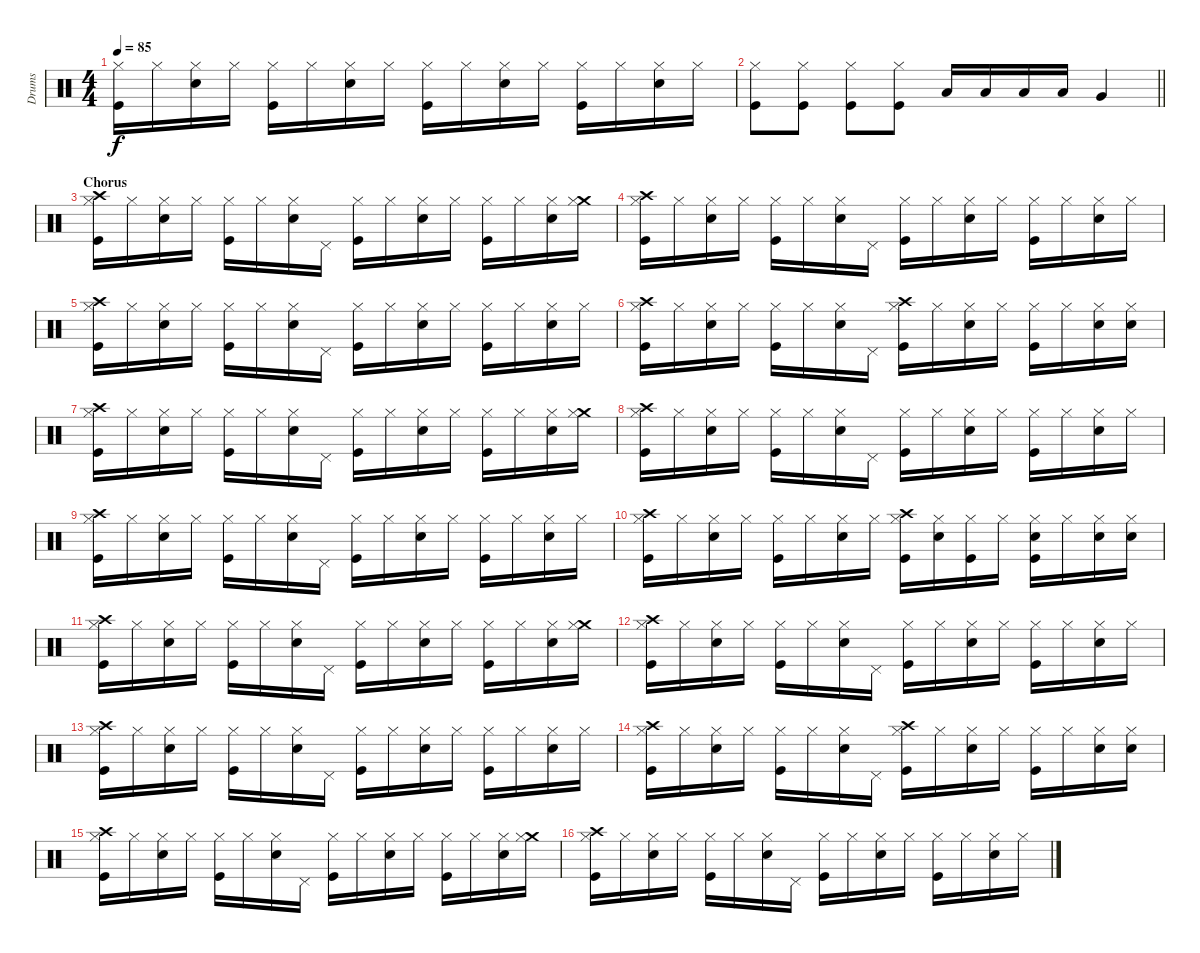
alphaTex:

\track ("Drums" "Drums") {instrument percussion}
\staff {score}
\articulation defaults
\ts (4 4)
\tempo 85
\clef neutral
\ks c
("Hi-Hat (closed)" "Kick (hit)").16{dy f} "Hi-Hat (closed)".16 ("Hi-Hat (closed)" "Electric Snare (hit)").16 "Hi-Hat (closed)".16 ("Hi-Hat (closed)" "Kick (hit)").16 "Hi-Hat (closed)".16 ("Hi-Hat (closed)" "Electric Snare (hit)").16 "Hi-Hat (closed)".16 ("Hi-Hat (closed)" "Kick (hit)").16 "Hi-Hat (closed)".16 ("Hi-Hat (closed)" "Electric Snare (hit)").16 "Hi-Hat (closed)".16 ("Hi-Hat (closed)" "Kick (hit)").16 "Hi-Hat (closed)".16 ("Hi-Hat (closed)" "Electric Snare (hit)").16 "Hi-Hat (closed)".16 |
\barLineRight lightlight
("Hi-Hat (closed)" "Kick (hit)").8 ("Hi-Hat (closed)" "Kick (hit)").8 ("Hi-Hat (closed)" "Kick (hit)").8 ("Hi-Hat (closed)" "Kick (hit)").8 "Low Floor Tom (hit)".16 "Low Floor Tom (hit)".16 "Low Floor Tom (hit)".16 "Low Floor Tom (hit)".16 "Very Low Tom (hit)".4 |
\section ("" "Chorus")
("Crash high (hit)" "Hi-Hat (closed)" "Kick (hit)").16 "Hi-Hat (closed)".16 ("Hi-Hat (closed)" "Electric Snare (hit)").16 "Hi-Hat (closed)".16 ("Hi-Hat (closed)" "Kick (hit)").16 "Hi-Hat (closed)".16 ("Hi-Hat (closed)" "Electric Snare (hit)").16 "Pedal Hi-Hat (hit)".16 ("Hi-Hat (closed)" "Kick (hit)").16 "Hi-Hat (closed)".16 ("Hi-Hat (closed)" "Electric Snare (hit)").16 "Hi-Hat (closed)".16 ("Hi-Hat (closed)" "Kick (hit)").16 "Hi-Hat (closed)".16 ("Hi-Hat (closed)" "Electric Snare (hit)").16 ("Crash medium (hit)" "Hi-Hat (closed)").16 |
("Crash high (hit)" "Hi-Hat (closed)" "Kick (hit)").16 "Hi-Hat (closed)".16 ("Hi-Hat (closed)" "Electric Snare (hit)").16 "Hi-Hat (closed)".16 ("Hi-Hat (closed)" "Kick (hit)").16 "Hi-Hat (closed)".16 ("Hi-Hat (closed)" "Electric Snare (hit)").16 "Pedal Hi-Hat (hit)".16 ("Hi-Hat (closed)" "Kick (hit)").16 "Hi-Hat (closed)".16 ("Hi-Hat (closed)" "Electric Snare (hit)").16 "Hi-Hat (closed)".16 ("Hi-Hat (closed)" "Kick (hit)").16 "Hi-Hat (closed)".16 ("Hi-Hat (closed)" "Electric Snare (hit)").16 "Hi-Hat (closed)".16 |
("Crash high (hit)" "Hi-Hat (closed)" "Kick (hit)").16 "Hi-Hat (closed)".16 ("Hi-Hat (closed)" "Electric Snare (hit)").16 "Hi-Hat (closed)".16 ("Hi-Hat (closed)" "Kick (hit)").16 "Hi-Hat (closed)".16 ("Hi-Hat (closed)" "Electric Snare (hit)").16 "Pedal Hi-Hat (hit)".16 ("Hi-Hat (closed)" "Kick (hit)").16 "Hi-Hat (closed)".16 ("Hi-Hat (closed)" "Electric Snare (hit)").16 "Hi-Hat (closed)".16 ("Hi-Hat (closed)" "Kick (hit)").16 "Hi-Hat (closed)".16 ("Hi-Hat (closed)" "Electric Snare (hit)").16 "Hi-Hat (closed)".16 |
("Crash high (hit)" "Hi-Hat (closed)" "Kick (hit)").16 "Hi-Hat (closed)".16 ("Hi-Hat (closed)" "Electric Snare (hit)").16 "Hi-Hat (closed)".16 ("Hi-Hat (closed)" "Kick (hit)").16 "Hi-Hat (closed)".16 ("Hi-Hat (closed)" "Electric Snare (hit)").16 "Pedal Hi-Hat (hit)".16 ("Crash high (hit)" "Hi-Hat (closed)" "Kick (hit)").16 "Hi-Hat (closed)".16 ("Hi-Hat (closed)" "Electric Snare (hit)").16 "Hi-Hat (closed)".16 ("Hi-Hat (closed)" "Kick (hit)").16 "Hi-Hat (closed)".16 ("Hi-Hat (closed)" "Electric Snare (hit)").16 ("Hi-Hat (closed)" "Electric Snare (hit)").16 |
("Crash high (hit)" "Hi-Hat (closed)" "Kick (hit)").16 "Hi-Hat (closed)".16 ("Hi-Hat (closed)" "Electric Snare (hit)").16 "Hi-Hat (closed)".16 ("Hi-Hat (closed)" "Kick (hit)").16 "Hi-Hat (closed)".16 ("Hi-Hat (closed)" "Electric Snare (hit)").16 "Pedal Hi-Hat (hit)".16 ("Hi-Hat (closed)" "Kick (hit)").16 "Hi-Hat (closed)".16 ("Hi-Hat (closed)" "Electric Snare (hit)").16 "Hi-Hat (closed)".16 ("Hi-Hat (closed)" "Kick (hit)").16 "Hi-Hat (closed)".16 ("Hi-Hat (closed)" "Electric Snare (hit)").16 ("Crash medium (hit)" "Hi-Hat (closed)").16 |
("Crash high (hit)" "Hi-Hat (closed)" "Kick (hit)").16 "Hi-Hat (closed)".16 ("Hi-Hat (closed)" "Electric Snare (hit)").16 "Hi-Hat (closed)".16 ("Hi-Hat (closed)" "Kick (hit)").16 "Hi-Hat (closed)".16 ("Hi-Hat (closed)" "Electric Snare (hit)").16 "Pedal Hi-Hat (hit)".16 ("Hi-Hat (closed)" "Kick (hit)").16 "Hi-Hat (closed)".16 ("Hi-Hat (closed)" "Electric Snare (hit)").16 "Hi-Hat (closed)".16 ("Hi-Hat (closed)" "Kick (hit)").16 "Hi-Hat (closed)".16 ("Hi-Hat (closed)" "Electric Snare (hit)").16 "Hi-Hat (closed)".16 |
("Crash high (hit)" "Hi-Hat (closed)" "Kick (hit)").16 "Hi-Hat (closed)".16 ("Hi-Hat (closed)" "Electric Snare (hit)").16 "Hi-Hat (closed)".16 ("Hi-Hat (closed)" "Kick (hit)").16 "Hi-Hat (closed)".16 ("Hi-Hat (closed)" "Electric Snare (hit)").16 "Pedal Hi-Hat (hit)".16 ("Hi-Hat (closed)" "Kick (hit)").16 "Hi-Hat (closed)".16 ("Hi-Hat (closed)" "Electric Snare (hit)").16 "Hi-Hat (closed)".16 ("Hi-Hat (closed)" "Kick (hit)").16 "Hi-Hat (closed)".16 ("Hi-Hat (closed)" "Electric Snare (hit)").16 "Hi-Hat (closed)".16 |
("Crash high (hit)" "Hi-Hat (closed)" "Kick (hit)").16 "Hi-Hat (closed)".16 ("Hi-Hat (closed)" "Electric Snare (hit)").16 "Hi-Hat (closed)".16 ("Hi-Hat (closed)" "Kick (hit)").16 "Hi-Hat (closed)".16 ("Hi-Hat (closed)" "Electric Snare (hit)").16 "Hi-Hat (closed)".16 ("Crash high (hit)" "Hi-Hat (closed)" "Kick (hit)").16 ("Hi-Hat (closed)" "Electric Snare (hit)").16 ("Hi-Hat (closed)" "Kick (hit)").16 "Hi-Hat (closed)".16 ("Hi-Hat (closed)" "Electric Snare (hit)" "Kick (hit)").16 "Hi-Hat (closed)".16 ("Hi-Hat (closed)" "Electric Snare (hit)").16 ("Hi-Hat (closed)" "Electric Snare (hit)").16 |
("Crash high (hit)" "Hi-Hat (closed)" "Kick (hit)").16 "Hi-Hat (closed)".16 ("Hi-Hat (closed)" "Electric Snare (hit)").16 "Hi-Hat (closed)".16 ("Hi-Hat (closed)" "Kick (hit)").16 "Hi-Hat (closed)".16 ("Hi-Hat (closed)" "Electric Snare (hit)").16 "Pedal Hi-Hat (hit)".16 ("Hi-Hat (closed)" "Kick (hit)").16 "Hi-Hat (closed)".16 ("Hi-Hat (closed)" "Electric Snare (hit)").16 "Hi-Hat (closed)".16 ("Hi-Hat (closed)" "Kick (hit)").16 "Hi-Hat (closed)".16 ("Hi-Hat (closed)" "Electric Snare (hit)").16 ("Crash medium (hit)" "Hi-Hat (closed)").16 |
("Crash high (hit)" "Hi-Hat (closed)" "Kick (hit)").16 "Hi-Hat (closed)".16 ("Hi-Hat (closed)" "Electric Snare (hit)").16 "Hi-Hat (closed)".16 ("Hi-Hat (closed)" "Kick (hit)").16 "Hi-Hat (closed)".16 ("Hi-Hat (closed)" "Electric Snare (hit)").16 "Pedal Hi-Hat (hit)".16 ("Hi-Hat (closed)" "Kick (hit)").16 "Hi-Hat (closed)".16 ("Hi-Hat (closed)" "Electric Snare (hit)").16 "Hi-Hat (closed)".16 ("Hi-Hat (closed)" "Kick (hit)").16 "Hi-Hat (closed)".16 ("Hi-Hat (closed)" "Electric Snare (hit)").16 "Hi-Hat (closed)".16 |
("Crash high (hit)" "Hi-Hat (closed)" "Kick (hit)").16 "Hi-Hat (closed)".16 ("Hi-Hat (closed)" "Electric Snare (hit)").16 "Hi-Hat (closed)".16 ("Hi-Hat (closed)" "Kick (hit)").16 "Hi-Hat (closed)".16 ("Hi-Hat (closed)" "Electric Snare (hit)").16 "Pedal Hi-Hat (hit)".16 ("Hi-Hat (closed)" "Kick (hit)").16 "Hi-Hat (closed)".16 ("Hi-Hat (closed)" "Electric Snare (hit)").16 "Hi-Hat (closed)".16 ("Hi-Hat (closed)" "Kick (hit)").16 "Hi-Hat (closed)".16 ("Hi-Hat (closed)" "Electric Snare (hit)").16 "Hi-Hat (closed)".16 |
("Crash high (hit)" "Hi-Hat (closed)" "Kick (hit)").16 "Hi-Hat (closed)".16 ("Hi-Hat (closed)" "Electric Snare (hit)").16 "Hi-Hat (closed)".16 ("Hi-Hat (closed)" "Kick (hit)").16 "Hi-Hat (closed)".16 ("Hi-Hat (closed)" "Electric Snare (hit)").16 "Pedal Hi-Hat (hit)".16 ("Crash high (hit)" "Hi-Hat (closed)" "Kick (hit)").16 "Hi-Hat (closed)".16 ("Hi-Hat (closed)" "Electric Snare (hit)").16 "Hi-Hat (closed)".16 ("Hi-Hat (closed)" "Kick (hit)").16 "Hi-Hat (closed)".16 ("Hi-Hat (closed)" "Electric Snare (hit)").16 ("Hi-Hat (closed)" "Electric Snare (hit)").16 |
("Crash high (hit)" "Hi-Hat (closed)" "Kick (hit)").16 "Hi-Hat (closed)".16 ("Hi-Hat (closed)" "Electric Snare (hit)").16 "Hi-Hat (closed)".16 ("Hi-Hat (closed)" "Kick (hit)").16 "Hi-Hat (closed)".16 ("Hi-Hat (closed)" "Electric Snare (hit)").16 "Pedal Hi-Hat (hit)".16 ("Hi-Hat (closed)" "Kick (hit)").16 "Hi-Hat (closed)".16 ("Hi-Hat (closed)" "Electric Snare (hit)").16 "Hi-Hat (closed)".16 ("Hi-Hat (closed)" "Kick (hit)").16 "Hi-Hat (closed)".16 ("Hi-Hat (closed)" "Electric Snare (hit)").16 ("Crash medium (hit)" "Hi-Hat (closed)").16 |
("Crash high (hit)" "Hi-Hat (closed)" "Kick (hit)").16 "Hi-Hat (closed)".16 ("Hi-Hat (closed)" "Electric Snare (hit)").16 "Hi-Hat (closed)".16 ("Hi-Hat (closed)" "Kick (hit)").16 "Hi-Hat (closed)".16 ("Hi-Hat (closed)" "Electric Snare (hit)").16 "Pedal Hi-Hat (hit)".16 ("Hi-Hat (closed)" "Kick (hit)").16 "Hi-Hat (closed)".16 ("Hi-Hat (closed)" "Electric Snare (hit)").16 "Hi-Hat (closed)".16 ("Hi-Hat (closed)" "Kick (hit)").16 "Hi-Hat (closed)".16 ("Hi-Hat (closed)" "Electric Snare (hit)").16 "Hi-Hat (closed)".16
